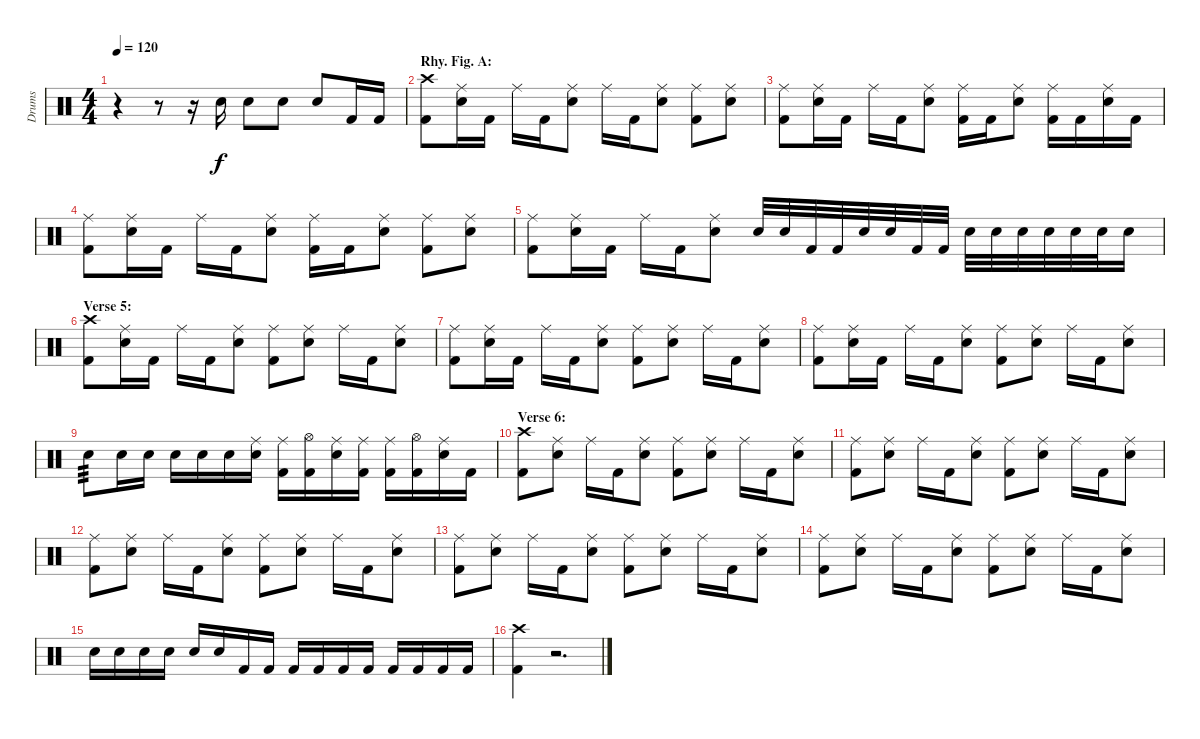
\track ("Drums" "Drums") {instrument percussion}
\staff {score}
\articulation defaults
\ts (4 4)
\tempo 120
\clef neutral
\ks c
r.4{dy f} r.8 r.16 "Electric Snare (hit)".16 "Electric Snare (hit)".8 "Electric Snare (hit)".8 "Electric Snare (hit)".8 "Kick (hit) 2".16 "Kick (hit) 2".16 |
\section ("" "Rhy. Fig. A:")
("Crash high (hit)" "Kick (hit) 2").8 ("Ride (middle)" "Electric Snare (hit)").16 "Kick (hit) 2".16 "Ride (middle)".16 "Kick (hit) 2".16 ("Ride (middle)" "Electric Snare (hit)").8 "Ride (middle)".16 "Kick (hit) 2".16 ("Ride (middle)" "Electric Snare (hit)").8 ("Ride (middle)" "Kick (hit) 2").8 ("Ride (middle)" "Electric Snare (hit)").8 |
("Ride (middle)" "Kick (hit) 2").8 ("Ride (middle)" "Electric Snare (hit)").16 "Kick (hit) 2".16 "Ride (middle)".16 "Kick (hit) 2".16 ("Ride (middle)" "Electric Snare (hit)").8 ("Ride (middle)" "Kick (hit) 2").16 "Kick (hit) 2".16 ("Ride (middle)" "Electric Snare (hit)").8 ("Ride (middle)" "Kick (hit) 2").16 "Kick (hit) 2".16 ("Ride (middle)" "Electric Snare (hit)").16 "Kick (hit) 2".16 |
("Ride (middle)" "Kick (hit) 2").8 ("Ride (middle)" "Electric Snare (hit)").16 "Kick (hit) 2".16 "Ride (middle)".16 "Kick (hit) 2".16 ("Ride (middle)" "Electric Snare (hit)").8 ("Ride (middle)" "Kick (hit) 2").16 "Kick (hit) 2".16 ("Ride (middle)" "Electric Snare (hit)").8 ("Ride (middle)" "Kick (hit) 2").8 ("Ride (middle)" "Electric Snare (hit)").8 |
("Ride (middle)" "Kick (hit) 2").8 ("Ride (middle)" "Electric Snare (hit)").16 "Kick (hit) 2".16 "Ride (middle)".16 "Kick (hit) 2".16 ("Ride (middle)" "Electric Snare (hit)").8 "Electric Snare (hit)".32 "Electric Snare (hit)".32 "Kick (hit) 2".32 "Kick (hit) 2".32 "Electric Snare (hit)".32 "Electric Snare (hit)".32 "Kick (hit) 2".32 "Kick (hit) 2".32 "Electric Snare (hit)".32 "Electric Snare (hit)".32 "Electric Snare (hit)".32 "Electric Snare (hit)".32 "Electric Snare (hit)".32 "Electric Snare (hit)".32 "Electric Snare (hit)".16 |
\section ("" "Verse 5:")
("Crash high (hit)" "Kick (hit) 2").8 ("Ride (middle)" "Electric Snare (hit)").16 "Kick (hit) 2".16 "Ride (middle)".16 "Kick (hit) 2".16 ("Ride (middle)" "Electric Snare (hit)").8 ("Ride (middle)" "Kick (hit) 2").8 ("Ride (middle)" "Electric Snare (hit)").8 "Ride (middle)".16 "Kick (hit) 2".16 ("Ride (middle)" "Electric Snare (hit)").8 |
("Ride (middle)" "Kick (hit) 2").8 ("Ride (middle)" "Electric Snare (hit)").16 "Kick (hit) 2".16 "Ride (middle)".16 "Kick (hit) 2".16 ("Ride (middle)" "Electric Snare (hit)").8 ("Ride (middle)" "Kick (hit) 2").8 ("Ride (middle)" "Electric Snare (hit)").8 "Ride (middle)".16 "Kick (hit) 2".16 ("Ride (middle)" "Electric Snare (hit)").8 |
("Ride (middle)" "Kick (hit) 2").8 ("Ride (middle)" "Electric Snare (hit)").16 "Kick (hit) 2".16 "Ride (middle)".16 "Kick (hit) 2".16 ("Ride (middle)" "Electric Snare (hit)").8 ("Ride (middle)" "Kick (hit) 2").8 ("Ride (middle)" "Electric Snare (hit)").8 "Ride (middle)".16 "Kick (hit) 2".16 ("Ride (middle)" "Electric Snare (hit)").8 |
"Electric Snare (hit)".8{tp 3} "Electric Snare (hit)".16 "Electric Snare (hit)".16 "Electric Snare (hit)".16 "Electric Snare (hit)".16 "Electric Snare (hit)".16 ("Ride (middle)" "Electric Snare (hit)").16 ("Ride (middle)" "Kick (hit) 2").16 ("Hi-Hat (open)" "Kick (hit) 2").16 ("Ride (middle)" "Electric Snare (hit)").16 ("Ride (middle)" "Kick (hit) 2").16 ("Ride (middle)" "Kick (hit) 2").16 ("Hi-Hat (open)" "Kick (hit) 2").16 ("Ride (middle)" "Electric Snare (hit)").16 "Kick (hit) 2".16 |
\section ("" "Verse 6:")
("Crash high (hit)" "Kick (hit) 2").8 ("Ride (middle)" "Electric Snare (hit)").8 "Ride (middle)".16 "Kick (hit) 2".16 ("Ride (middle)" "Electric Snare (hit)").8 ("Ride (middle)" "Kick (hit) 2").8 ("Ride (middle)" "Electric Snare (hit)").8 "Ride (middle)".16 "Kick (hit) 2".16 ("Ride (middle)" "Electric Snare (hit)").8 |
("Ride (middle)" "Kick (hit) 2").8 ("Ride (middle)" "Electric Snare (hit)").8 "Ride (middle)".16 "Kick (hit) 2".16 ("Ride (middle)" "Electric Snare (hit)").8 ("Ride (middle)" "Kick (hit) 2").8 ("Ride (middle)" "Electric Snare (hit)").8 "Ride (middle)".16 "Kick (hit) 2".16 ("Ride (middle)" "Electric Snare (hit)").8 |
("Ride (middle)" "Kick (hit) 2").8 ("Ride (middle)" "Electric Snare (hit)").8 "Ride (middle)".16 "Kick (hit) 2".16 ("Ride (middle)" "Electric Snare (hit)").8 ("Ride (middle)" "Kick (hit) 2").8 ("Ride (middle)" "Electric Snare (hit)").8 "Ride (middle)".16 "Kick (hit) 2".16 ("Ride (middle)" "Electric Snare (hit)").8 |
("Ride (middle)" "Kick (hit) 2").8 ("Ride (middle)" "Electric Snare (hit)").8 "Ride (middle)".16 "Kick (hit) 2".16 ("Ride (middle)" "Electric Snare (hit)").8 ("Ride (middle)" "Kick (hit) 2").8 ("Ride (middle)" "Electric Snare (hit)").8 "Ride (middle)".16 "Kick (hit) 2".16 ("Ride (middle)" "Electric Snare (hit)").8 |
("Ride (middle)" "Kick (hit) 2").8 ("Ride (middle)" "Electric Snare (hit)").8 "Ride (middle)".16 "Kick (hit) 2".16 ("Ride (middle)" "Electric Snare (hit)").8 ("Ride (middle)" "Kick (hit) 2").8 ("Ride (middle)" "Electric Snare (hit)").8 "Ride (middle)".16 "Kick (hit) 2".16 ("Ride (middle)" "Electric Snare (hit)").8 |
"Electric Snare (hit)".16 "Electric Snare (hit)".16 "Electric Snare (hit)".16 "Electric Snare (hit)".16 "Electric Snare (hit)".16 "Electric Snare (hit)".16 "Kick (hit) 2".16 "Kick (hit) 2".16 "Kick (hit) 2".16 "Kick (hit) 2".16 "Kick (hit) 2".16 "Kick (hit) 2".16 "Kick (hit) 2".16 "Kick (hit) 2".16 "Kick (hit) 2".16 "Kick (hit) 2".16 |
("Crash high (hit)" "Kick (hit) 2").4 r.2{d}
